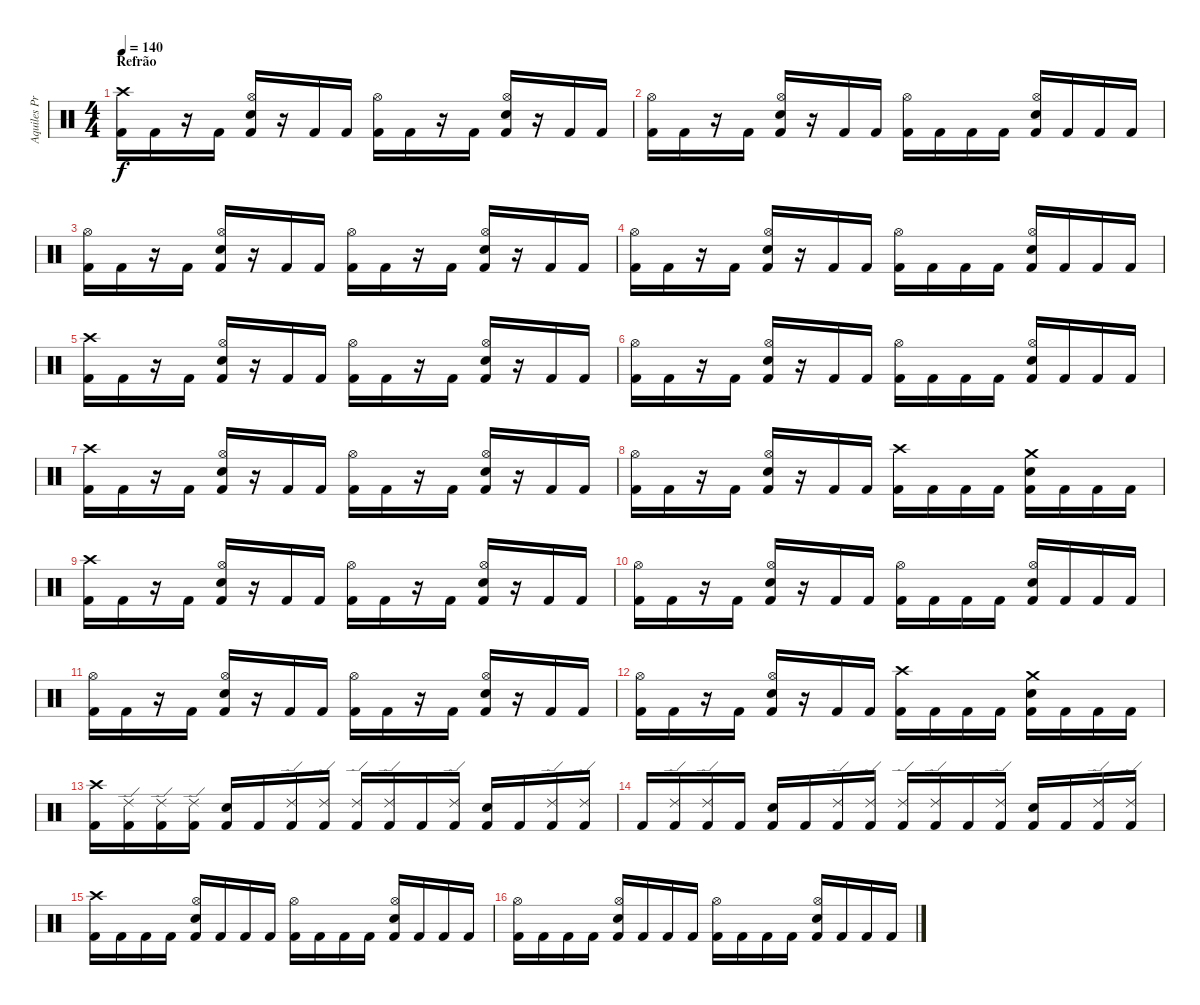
\track ("Aquiles Priester" "Aquiles Pr") {instrument percussion}
\staff {score}
\articulation defaults
\ts (4 4)
\section ("" "Refrão")
\tempo 140
\clef neutral
\ks c
("Crash high (hit)" "Kick (hit) 2").16{dy f} "Kick (hit) 2".16 r.16 "Kick (hit) 2".16 ("Hi-Hat (open)" "Electric Snare (hit)" "Kick (hit) 2").16 r.16 "Kick (hit) 2".16 "Kick (hit) 2".16 ("Hi-Hat (open)" "Kick (hit) 2").16 "Kick (hit) 2".16 r.16 "Kick (hit) 2".16 ("Hi-Hat (open)" "Electric Snare (hit)" "Kick (hit) 2").16 r.16 "Kick (hit) 2".16 "Kick (hit) 2".16 |
("Hi-Hat (open)" "Kick (hit) 2").16 "Kick (hit) 2".16 r.16 "Kick (hit) 2".16 ("Hi-Hat (open)" "Electric Snare (hit)" "Kick (hit) 2").16 r.16 "Kick (hit) 2".16 "Kick (hit) 2".16 ("Hi-Hat (open)" "Kick (hit) 2").16 "Kick (hit) 2".16 "Kick (hit) 2".16 "Kick (hit) 2".16 ("Hi-Hat (open)" "Electric Snare (hit)" "Kick (hit) 2").16 "Kick (hit) 2".16 "Kick (hit) 2".16 "Kick (hit) 2".16 |
("Hi-Hat (open)" "Kick (hit) 2").16 "Kick (hit) 2".16 r.16 "Kick (hit) 2".16 ("Hi-Hat (open)" "Electric Snare (hit)" "Kick (hit) 2").16 r.16 "Kick (hit) 2".16 "Kick (hit) 2".16 ("Hi-Hat (open)" "Kick (hit) 2").16 "Kick (hit) 2".16 r.16 "Kick (hit) 2".16 ("Hi-Hat (open)" "Electric Snare (hit)" "Kick (hit) 2").16 r.16 "Kick (hit) 2".16 "Kick (hit) 2".16 |
("Hi-Hat (open)" "Kick (hit) 2").16 "Kick (hit) 2".16 r.16 "Kick (hit) 2".16 ("Hi-Hat (open)" "Electric Snare (hit)" "Kick (hit) 2").16 r.16 "Kick (hit) 2".16 "Kick (hit) 2".16 ("Hi-Hat (open)" "Kick (hit) 2").16 "Kick (hit) 2".16 "Kick (hit) 2".16 "Kick (hit) 2".16 ("Hi-Hat (open)" "Electric Snare (hit)" "Kick (hit) 2").16 "Kick (hit) 2".16 "Kick (hit) 2".16 "Kick (hit) 2".16 |
("Crash high (hit)" "Kick (hit) 2").16 "Kick (hit) 2".16 r.16 "Kick (hit) 2".16 ("Hi-Hat (open)" "Electric Snare (hit)" "Kick (hit) 2").16 r.16 "Kick (hit) 2".16 "Kick (hit) 2".16 ("Hi-Hat (open)" "Kick (hit) 2").16 "Kick (hit) 2".16 r.16 "Kick (hit) 2".16 ("Hi-Hat (open)" "Electric Snare (hit)" "Kick (hit) 2").16 r.16 "Kick (hit) 2".16 "Kick (hit) 2".16 |
("Hi-Hat (open)" "Kick (hit) 2").16 "Kick (hit) 2".16 r.16 "Kick (hit) 2".16 ("Hi-Hat (open)" "Electric Snare (hit)" "Kick (hit) 2").16 r.16 "Kick (hit) 2".16 "Kick (hit) 2".16 ("Hi-Hat (open)" "Kick (hit) 2").16 "Kick (hit) 2".16 "Kick (hit) 2".16 "Kick (hit) 2".16 ("Hi-Hat (open)" "Electric Snare (hit)" "Kick (hit) 2").16 "Kick (hit) 2".16 "Kick (hit) 2".16 "Kick (hit) 2".16 |
("Crash high (hit)" "Kick (hit) 2").16 "Kick (hit) 2".16 r.16 "Kick (hit) 2".16 ("Hi-Hat (open)" "Electric Snare (hit)" "Kick (hit) 2").16 r.16 "Kick (hit) 2".16 "Kick (hit) 2".16 ("Hi-Hat (open)" "Kick (hit) 2").16 "Kick (hit) 2".16 r.16 "Kick (hit) 2".16 ("Hi-Hat (open)" "Electric Snare (hit)" "Kick (hit) 2").16 r.16 "Kick (hit) 2".16 "Kick (hit) 2".16 |
("Hi-Hat (open)" "Kick (hit) 2").16 "Kick (hit) 2".16 r.16 "Kick (hit) 2".16 ("Hi-Hat (open)" "Electric Snare (hit)" "Kick (hit) 2").16 r.16 "Kick (hit) 2".16 "Kick (hit) 2".16 ("Crash high (hit)" "Kick (hit) 2").16 "Kick (hit) 2".16 "Kick (hit) 2".16 "Kick (hit) 2".16 ("Crash medium (hit)" "Electric Snare (hit)" "Kick (hit) 2").16 "Kick (hit) 2".16 "Kick (hit) 2".16 "Kick (hit) 2".16 |
("Crash high (hit)" "Kick (hit) 2").16 "Kick (hit) 2".16 r.16 "Kick (hit) 2".16 ("Hi-Hat (open)" "Electric Snare (hit)" "Kick (hit) 2").16 r.16 "Kick (hit) 2".16 "Kick (hit) 2".16 ("Hi-Hat (open)" "Kick (hit) 2").16 "Kick (hit) 2".16 r.16 "Kick (hit) 2".16 ("Hi-Hat (open)" "Electric Snare (hit)" "Kick (hit) 2").16 r.16 "Kick (hit) 2".16 "Kick (hit) 2".16 |
("Hi-Hat (open)" "Kick (hit) 2").16 "Kick (hit) 2".16 r.16 "Kick (hit) 2".16 ("Hi-Hat (open)" "Electric Snare (hit)" "Kick (hit) 2").16 r.16 "Kick (hit) 2".16 "Kick (hit) 2".16 ("Hi-Hat (open)" "Kick (hit) 2").16 "Kick (hit) 2".16 "Kick (hit) 2".16 "Kick (hit) 2".16 ("Hi-Hat (open)" "Electric Snare (hit)" "Kick (hit) 2").16 "Kick (hit) 2".16 "Kick (hit) 2".16 "Kick (hit) 2".16 |
("Hi-Hat (open)" "Kick (hit) 2").16 "Kick (hit) 2".16 r.16 "Kick (hit) 2".16 ("Hi-Hat (open)" "Electric Snare (hit)" "Kick (hit) 2").16 r.16 "Kick (hit) 2".16 "Kick (hit) 2".16 ("Hi-Hat (open)" "Kick (hit) 2").16 "Kick (hit) 2".16 r.16 "Kick (hit) 2".16 ("Hi-Hat (open)" "Electric Snare (hit)" "Kick (hit) 2").16 r.16 "Kick (hit) 2".16 "Kick (hit) 2".16 |
("Hi-Hat (open)" "Kick (hit) 2").16 "Kick (hit) 2".16 r.16 "Kick (hit) 2".16 ("Hi-Hat (open)" "Electric Snare (hit)" "Kick (hit) 2").16 r.16 "Kick (hit) 2".16 "Kick (hit) 2".16 ("Crash high (hit)" "Kick (hit) 2").16 "Kick (hit) 2".16 "Kick (hit) 2".16 "Kick (hit) 2".16 ("Crash medium (hit)" "Electric Snare (hit)" "Kick (hit) 2").16 "Kick (hit) 2".16 "Kick (hit) 2".16 "Kick (hit) 2".16 |
("Crash high (hit)" "Kick (hit) 2").16 ("Ride (edge) 2" "Kick (hit) 2").16 ("Ride (edge) 2" "Kick (hit) 2").16 ("Ride (edge) 2" "Kick (hit) 2").16 ("Electric Snare (hit)" "Kick (hit) 2").16 "Kick (hit) 2".16 ("Ride (edge) 2" "Kick (hit) 2").16 ("Ride (edge) 2" "Kick (hit) 2").16 ("Ride (edge) 2" "Kick (hit) 2").16 ("Ride (edge) 2" "Kick (hit) 2").16 "Kick (hit) 2".16 ("Ride (edge) 2" "Kick (hit) 2").16 ("Electric Snare (hit)" "Kick (hit) 2").16 "Kick (hit) 2".16 ("Ride (edge) 2" "Kick (hit) 2").16 ("Ride (edge) 2" "Kick (hit) 2").16 |
"Kick (hit) 2".16 ("Ride (edge) 2" "Kick (hit) 2").16 ("Ride (edge) 2" "Kick (hit) 2").16 "Kick (hit) 2".16 ("Electric Snare (hit)" "Kick (hit) 2").16 "Kick (hit) 2".16 ("Ride (edge) 2" "Kick (hit) 2").16 ("Ride (edge) 2" "Kick (hit) 2").16 ("Ride (edge) 2" "Kick (hit) 2").16 ("Ride (edge) 2" "Kick (hit) 2").16 "Kick (hit) 2".16 ("Ride (edge) 2" "Kick (hit) 2").16 ("Electric Snare (hit)" "Kick (hit) 2").16 "Kick (hit) 2".16 ("Ride (edge) 2" "Kick (hit) 2").16 ("Ride (edge) 2" "Kick (hit) 2").16 |
("Crash high (hit)" "Kick (hit) 2").16 "Kick (hit) 2".16 "Kick (hit) 2".16 "Kick (hit) 2".16 ("Hi-Hat (open)" "Electric Snare (hit)" "Kick (hit) 2").16 "Kick (hit) 2".16 "Kick (hit) 2".16 "Kick (hit) 2".16 ("Hi-Hat (open)" "Kick (hit) 2").16 "Kick (hit) 2".16 "Kick (hit) 2".16 "Kick (hit) 2".16 ("Hi-Hat (open)" "Electric Snare (hit)" "Kick (hit) 2").16 "Kick (hit) 2".16 "Kick (hit) 2".16 "Kick (hit) 2".16 |
("Hi-Hat (open)" "Kick (hit) 2").16 "Kick (hit) 2".16 "Kick (hit) 2".16 "Kick (hit) 2".16 ("Hi-Hat (open)" "Electric Snare (hit)" "Kick (hit) 2").16 "Kick (hit) 2".16 "Kick (hit) 2".16 "Kick (hit) 2".16 ("Hi-Hat (open)" "Kick (hit) 2").16 "Kick (hit) 2".16 "Kick (hit) 2".16 "Kick (hit) 2".16 ("Hi-Hat (open)" "Electric Snare (hit)" "Kick (hit) 2").16 "Kick (hit) 2".16 "Kick (hit) 2".16 "Kick (hit) 2".16
